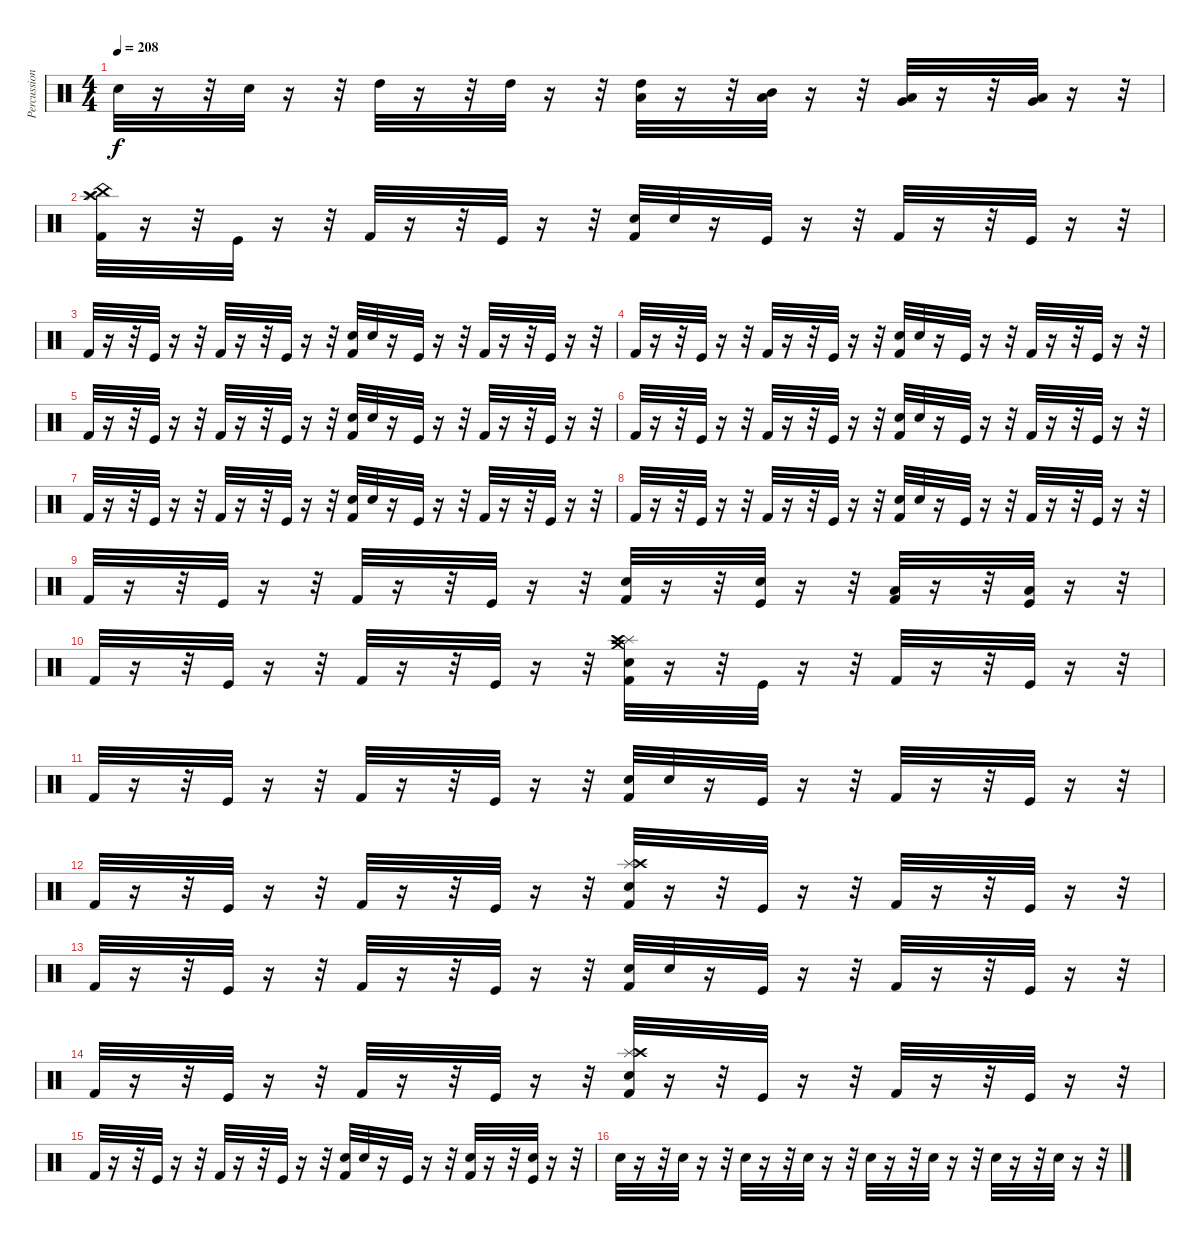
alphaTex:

\track ("Percussion" "Percussion") {instrument percussion}
\staff {score}
\articulation defaults
\ts (4 4)
\tempo 208
\clef neutral
\ks c "Snare (hit) 2".32{dy f}
r.16 r.32 "Snare (hit) 2".32 r.16 r.32 "High Tom (hit)".32 r.16 r.32 "High Tom (hit)".32 r.16 r.32 ("Low Tom (hit)" "High Tom (hit)").32 r.16 r.32 ("Low Tom (hit)" "Mid Tom (hit)").32 r.16 r.32 ("Low Tom (hit)" "Very Low Tom (hit)").32 r.16 r.32 ("Low Floor Tom (hit)" "Very Low Tom (hit)").32 r.16 r.32 |
("China (hit)" "Crash high (hit)" "Splash (hit)" "Kick (hit) 2").32 r.16 r.32 "Kick (hit)".32 r.16 r.32 "Kick (hit) 2".32 r.16 r.32 "Kick (hit)".32 r.16 r.32 ("Snare (hit) 2" "Kick (hit) 2").32 "Snare (hit) 2".32 r.16 "Kick (hit)".32 r.16 r.32 "Kick (hit) 2".32 r.16 r.32 "Kick (hit)".32 r.16 r.32 |
"Kick (hit) 2".32 r.16 r.32 "Kick (hit)".32 r.16 r.32 "Kick (hit) 2".32 r.16 r.32 "Kick (hit)".32 r.16 r.32 ("Snare (hit) 2" "Kick (hit) 2").32 "Snare (hit) 2".32 r.16 "Kick (hit)".32 r.16 r.32 "Kick (hit) 2".32 r.16 r.32 "Kick (hit)".32 r.16 r.32 |
"Kick (hit) 2".32 r.16 r.32 "Kick (hit)".32 r.16 r.32 "Kick (hit) 2".32 r.16 r.32 "Kick (hit)".32 r.16 r.32 ("Snare (hit) 2" "Kick (hit) 2").32 "Snare (hit) 2".32 r.16 "Kick (hit)".32 r.16 r.32 "Kick (hit) 2".32 r.16 r.32 "Kick (hit)".32 r.16 r.32 |
"Kick (hit) 2".32 r.16 r.32 "Kick (hit)".32 r.16 r.32 "Kick (hit) 2".32 r.16 r.32 "Kick (hit)".32 r.16 r.32 ("Snare (hit) 2" "Kick (hit) 2").32 "Snare (hit) 2".32 r.16 "Kick (hit)".32 r.16 r.32 "Kick (hit) 2".32 r.16 r.32 "Kick (hit)".32 r.16 r.32 |
"Kick (hit) 2".32 r.16 r.32 "Kick (hit)".32 r.16 r.32 "Kick (hit) 2".32 r.16 r.32 "Kick (hit)".32 r.16 r.32 ("Snare (hit) 2" "Kick (hit) 2").32 "Snare (hit) 2".32 r.16 "Kick (hit)".32 r.16 r.32 "Kick (hit) 2".32 r.16 r.32 "Kick (hit)".32 r.16 r.32 |
"Kick (hit) 2".32 r.16 r.32 "Kick (hit)".32 r.16 r.32 "Kick (hit) 2".32 r.16 r.32 "Kick (hit)".32 r.16 r.32 ("Snare (hit) 2" "Kick (hit) 2").32 "Snare (hit) 2".32 r.16 "Kick (hit)".32 r.16 r.32 "Kick (hit) 2".32 r.16 r.32 "Kick (hit)".32 r.16 r.32 |
"Kick (hit) 2".32 r.16 r.32 "Kick (hit)".32 r.16 r.32 "Kick (hit) 2".32 r.16 r.32 "Kick (hit)".32 r.16 r.32 ("Snare (hit) 2" "Kick (hit) 2").32 "Snare (hit) 2".32 r.16 "Kick (hit)".32 r.16 r.32 "Kick (hit) 2".32 r.16 r.32 "Kick (hit)".32 r.16 r.32 |
"Kick (hit) 2".32 r.16 r.32 "Kick (hit)".32 r.16 r.32 "Kick (hit) 2".32 r.16 r.32 "Kick (hit)".32 r.16 r.32 ("Snare (hit) 2" "Kick (hit) 2").32 r.16 r.32 ("Snare (hit) 2" "Kick (hit)").32 r.16 r.32 ("Low Tom (hit)" "Kick (hit) 2").32 r.16 r.32 ("Low Floor Tom (hit)" "Kick (hit)").32 r.16 r.32 |
"Kick (hit) 2".32 r.16 r.32 "Kick (hit)".32 r.16 r.32 "Kick (hit) 2".32 r.16 r.32 "Kick (hit)".32 r.16 r.32 ("Crash medium (hit)" "Splash (hit)" "Crash high (hit)" "Snare (hit) 2" "Kick (hit) 2").32 r.16 r.32 "Kick (hit)".32 r.16 r.32 "Kick (hit) 2".32 r.16 r.32 "Kick (hit)".32 r.16 r.32 |
"Kick (hit) 2".32 r.16 r.32 "Kick (hit)".32 r.16 r.32 "Kick (hit) 2".32 r.16 r.32 "Kick (hit)".32 r.16 r.32 ("Snare (hit) 2" "Kick (hit) 2").32 "Snare (hit) 2".32 r.16 "Kick (hit)".32 r.16 r.32 "Kick (hit) 2".32 r.16 r.32 "Kick (hit)".32 r.16 r.32 |
"Kick (hit) 2".32 r.16 r.32 "Kick (hit)".32 r.16 r.32 "Kick (hit) 2".32 r.16 r.32 "Kick (hit)".32 r.16 r.32 ("Splash (hit)" "Crash high (hit)" "Snare (hit) 2" "Kick (hit) 2").32 r.16 r.32 "Kick (hit)".32 r.16 r.32 "Kick (hit) 2".32 r.16 r.32 "Kick (hit)".32 r.16 r.32 |
"Kick (hit) 2".32 r.16 r.32 "Kick (hit)".32 r.16 r.32 "Kick (hit) 2".32 r.16 r.32 "Kick (hit)".32 r.16 r.32 ("Snare (hit) 2" "Kick (hit) 2").32 "Snare (hit) 2".32 r.16 "Kick (hit)".32 r.16 r.32 "Kick (hit) 2".32 r.16 r.32 "Kick (hit)".32 r.16 r.32 |
"Kick (hit) 2".32 r.16 r.32 "Kick (hit)".32 r.16 r.32 "Kick (hit) 2".32 r.16 r.32 "Kick (hit)".32 r.16 r.32 ("Splash (hit)" "Crash high (hit)" "Snare (hit) 2" "Kick (hit) 2").32 r.16 r.32 "Kick (hit)".32 r.16 r.32 "Kick (hit) 2".32 r.16 r.32 "Kick (hit)".32 r.16 r.32 |
"Kick (hit) 2".32 r.16 r.32 "Kick (hit)".32 r.16 r.32 "Kick (hit) 2".32 r.16 r.32 "Kick (hit)".32 r.16 r.32 ("Snare (hit) 2" "Kick (hit) 2").32 "Snare (hit) 2".32 r.16 "Kick (hit)".32 r.16 r.32 ("Snare (hit) 2" "Kick (hit) 2").32 r.16 r.32 ("Snare (hit) 2" "Kick (hit)").32 r.16 r.32 |
"Snare (hit) 2".32 r.16 r.32 "Snare (hit) 2".32 r.16 r.32 "Snare (hit) 2".32 r.16 r.32 "Snare (hit) 2".32 r.16 r.32 "Snare (hit) 2".32 r.16 r.32 "Snare (hit) 2".32 r.16 r.32 "Snare (hit) 2".32 r.16 r.32 "Snare (hit) 2".32 r.16 r.32
